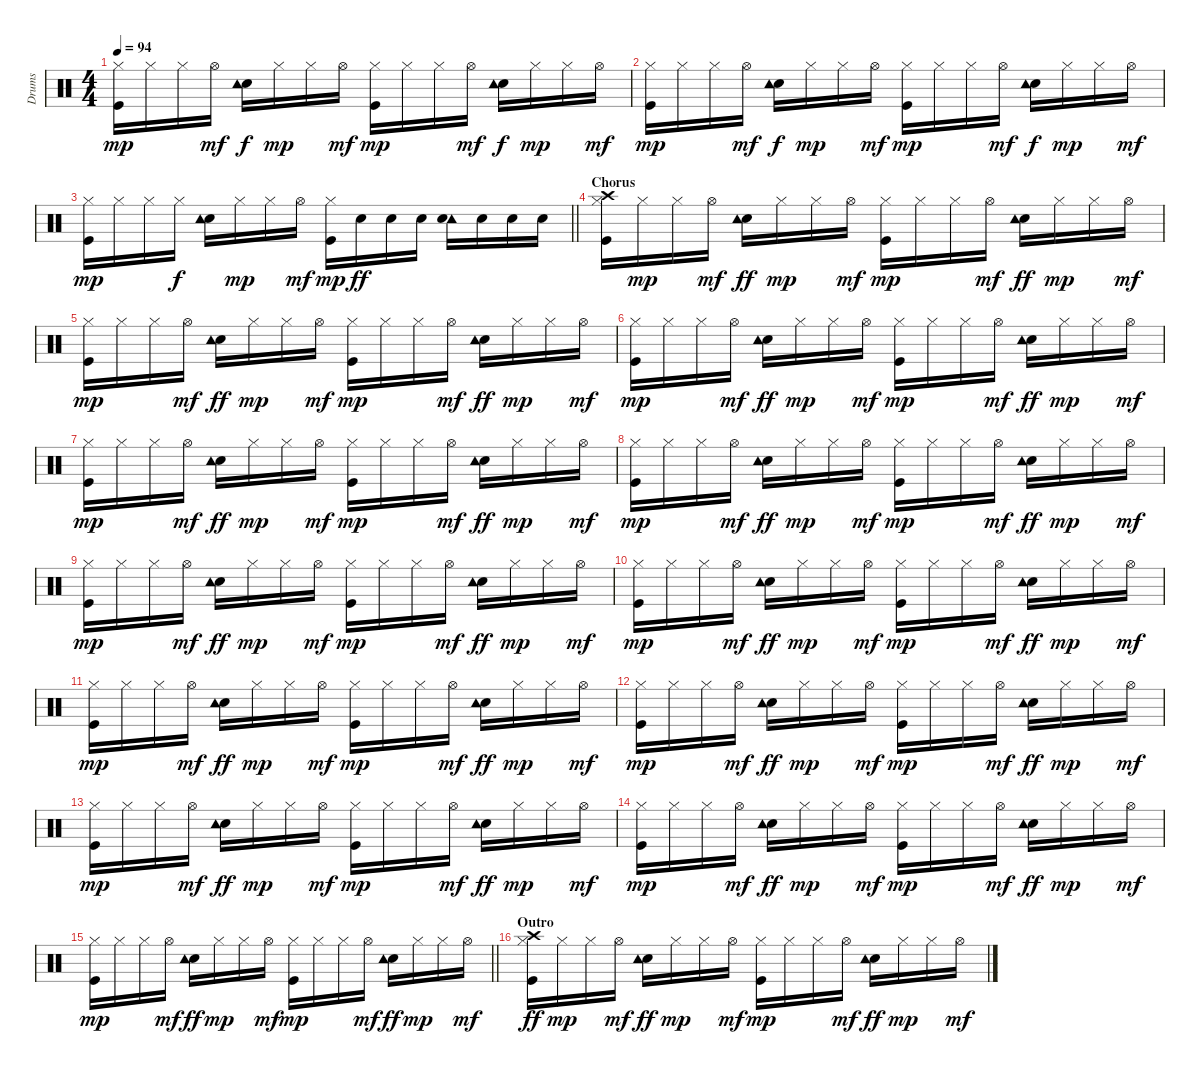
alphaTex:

\track ("Drums" "Drums") {instrument percussion}
\staff {score}
\articulation defaults
\ts (4 4)
\tempo 94
\clef neutral
\ks c
("Hi-Hat (closed)" "Kick (hit)").16{dy mp} "Hi-Hat (closed)".16 "Hi-Hat (closed)".16 "Hi-Hat (open)".16{dy mf} ("Snare (hit) 2" "Tambourine (hit)").16{dy f} "Hi-Hat (closed)".16{dy mp} "Hi-Hat (closed)".16 "Hi-Hat (open)".16{dy mf} ("Hi-Hat (closed)" "Kick (hit)").16{dy mp} "Hi-Hat (closed)".16 "Hi-Hat (closed)".16 "Hi-Hat (open)".16{dy mf} ("Snare (hit) 2" "Tambourine (hit)").16{dy f} "Hi-Hat (closed)".16{dy mp} "Hi-Hat (closed)".16 "Hi-Hat (open)".16{dy mf} |
("Hi-Hat (closed)" "Kick (hit)").16{dy mp} "Hi-Hat (closed)".16 "Hi-Hat (closed)".16 "Hi-Hat (open)".16{dy mf} ("Snare (hit) 2" "Tambourine (hit)").16{dy f} "Hi-Hat (closed)".16{dy mp} "Hi-Hat (closed)".16 "Hi-Hat (open)".16{dy mf} ("Hi-Hat (closed)" "Kick (hit)").16{dy mp} "Hi-Hat (closed)".16 "Hi-Hat (closed)".16 "Hi-Hat (open)".16{dy mf} ("Snare (hit) 2" "Tambourine (hit)").16{dy f} "Hi-Hat (closed)".16{dy mp} "Hi-Hat (closed)".16 "Hi-Hat (open)".16{dy mf} |
\barLineRight lightlight
("Hi-Hat (closed)" "Kick (hit)").16{dy mp} "Hi-Hat (closed)".16 "Hi-Hat (closed)".16 "Hi-Hat (closed)".16{dy f} ("Snare (hit) 2" "Tambourine (hit)").16 "Hi-Hat (closed)".16{dy mp} "Hi-Hat (closed)".16 "Hi-Hat (open)".16{dy mf} ("Hi-Hat (closed)" "Kick (hit)").16{dy mp} "Snare (hit) 2".16{dy ff} "Snare (hit) 2".16 "Snare (hit) 2".16 ("Tambourine (hit)" "Snare (hit) 2").16 "Snare (hit) 2".16 "Snare (hit) 2".16 "Snare (hit) 2".16 |
\section ("" "Chorus")
("Hi-Hat (closed)" "Kick (hit)" "Crash high (hit)").16 "Hi-Hat (closed)".16{dy mp} "Hi-Hat (closed)".16 "Hi-Hat (open)".16{dy mf} ("Snare (hit) 2" "Tambourine (hit)").16{dy ff} "Hi-Hat (closed)".16{dy mp} "Hi-Hat (closed)".16 "Hi-Hat (open)".16{dy mf} ("Hi-Hat (closed)" "Kick (hit)").16{dy mp} "Hi-Hat (closed)".16 "Hi-Hat (closed)".16 "Hi-Hat (open)".16{dy mf} ("Snare (hit) 2" "Tambourine (hit)").16{dy ff} "Hi-Hat (closed)".16{dy mp} "Hi-Hat (closed)".16 "Hi-Hat (open)".16{dy mf} |
("Hi-Hat (closed)" "Kick (hit)").16{dy mp} "Hi-Hat (closed)".16 "Hi-Hat (closed)".16 "Hi-Hat (open)".16{dy mf} ("Snare (hit) 2" "Tambourine (hit)").16{dy ff} "Hi-Hat (closed)".16{dy mp} "Hi-Hat (closed)".16 "Hi-Hat (open)".16{dy mf} ("Hi-Hat (closed)" "Kick (hit)").16{dy mp} "Hi-Hat (closed)".16 "Hi-Hat (closed)".16 "Hi-Hat (open)".16{dy mf} ("Snare (hit) 2" "Tambourine (hit)").16{dy ff} "Hi-Hat (closed)".16{dy mp} "Hi-Hat (closed)".16 "Hi-Hat (open)".16{dy mf} |
("Hi-Hat (closed)" "Kick (hit)").16{dy mp} "Hi-Hat (closed)".16 "Hi-Hat (closed)".16 "Hi-Hat (open)".16{dy mf} ("Snare (hit) 2" "Tambourine (hit)").16{dy ff} "Hi-Hat (closed)".16{dy mp} "Hi-Hat (closed)".16 "Hi-Hat (open)".16{dy mf} ("Hi-Hat (closed)" "Kick (hit)").16{dy mp} "Hi-Hat (closed)".16 "Hi-Hat (closed)".16 "Hi-Hat (open)".16{dy mf} ("Snare (hit) 2" "Tambourine (hit)").16{dy ff} "Hi-Hat (closed)".16{dy mp} "Hi-Hat (closed)".16 "Hi-Hat (open)".16{dy mf} |
("Hi-Hat (closed)" "Kick (hit)").16{dy mp} "Hi-Hat (closed)".16 "Hi-Hat (closed)".16 "Hi-Hat (open)".16{dy mf} ("Snare (hit) 2" "Tambourine (hit)").16{dy ff} "Hi-Hat (closed)".16{dy mp} "Hi-Hat (closed)".16 "Hi-Hat (open)".16{dy mf} ("Hi-Hat (closed)" "Kick (hit)").16{dy mp} "Hi-Hat (closed)".16 "Hi-Hat (closed)".16 "Hi-Hat (open)".16{dy mf} ("Snare (hit) 2" "Tambourine (hit)").16{dy ff} "Hi-Hat (closed)".16{dy mp} "Hi-Hat (closed)".16 "Hi-Hat (open)".16{dy mf} |
("Hi-Hat (closed)" "Kick (hit)").16{dy mp} "Hi-Hat (closed)".16 "Hi-Hat (closed)".16 "Hi-Hat (open)".16{dy mf} ("Snare (hit) 2" "Tambourine (hit)").16{dy ff} "Hi-Hat (closed)".16{dy mp} "Hi-Hat (closed)".16 "Hi-Hat (open)".16{dy mf} ("Hi-Hat (closed)" "Kick (hit)").16{dy mp} "Hi-Hat (closed)".16 "Hi-Hat (closed)".16 "Hi-Hat (open)".16{dy mf} ("Snare (hit) 2" "Tambourine (hit)").16{dy ff} "Hi-Hat (closed)".16{dy mp} "Hi-Hat (closed)".16 "Hi-Hat (open)".16{dy mf} |
("Hi-Hat (closed)" "Kick (hit)").16{dy mp} "Hi-Hat (closed)".16 "Hi-Hat (closed)".16 "Hi-Hat (open)".16{dy mf} ("Snare (hit) 2" "Tambourine (hit)").16{dy ff} "Hi-Hat (closed)".16{dy mp} "Hi-Hat (closed)".16 "Hi-Hat (open)".16{dy mf} ("Hi-Hat (closed)" "Kick (hit)").16{dy mp} "Hi-Hat (closed)".16 "Hi-Hat (closed)".16 "Hi-Hat (open)".16{dy mf} ("Snare (hit) 2" "Tambourine (hit)").16{dy ff} "Hi-Hat (closed)".16{dy mp} "Hi-Hat (closed)".16 "Hi-Hat (open)".16{dy mf} |
("Hi-Hat (closed)" "Kick (hit)").16{dy mp} "Hi-Hat (closed)".16 "Hi-Hat (closed)".16 "Hi-Hat (open)".16{dy mf} ("Snare (hit) 2" "Tambourine (hit)").16{dy ff} "Hi-Hat (closed)".16{dy mp} "Hi-Hat (closed)".16 "Hi-Hat (open)".16{dy mf} ("Hi-Hat (closed)" "Kick (hit)").16{dy mp} "Hi-Hat (closed)".16 "Hi-Hat (closed)".16 "Hi-Hat (open)".16{dy mf} ("Snare (hit) 2" "Tambourine (hit)").16{dy ff} "Hi-Hat (closed)".16{dy mp} "Hi-Hat (closed)".16 "Hi-Hat (open)".16{dy mf} |
("Hi-Hat (closed)" "Kick (hit)").16{dy mp} "Hi-Hat (closed)".16 "Hi-Hat (closed)".16 "Hi-Hat (open)".16{dy mf} ("Snare (hit) 2" "Tambourine (hit)").16{dy ff} "Hi-Hat (closed)".16{dy mp} "Hi-Hat (closed)".16 "Hi-Hat (open)".16{dy mf} ("Hi-Hat (closed)" "Kick (hit)").16{dy mp} "Hi-Hat (closed)".16 "Hi-Hat (closed)".16 "Hi-Hat (open)".16{dy mf} ("Snare (hit) 2" "Tambourine (hit)").16{dy ff} "Hi-Hat (closed)".16{dy mp} "Hi-Hat (closed)".16 "Hi-Hat (open)".16{dy mf} |
("Hi-Hat (closed)" "Kick (hit)").16{dy mp} "Hi-Hat (closed)".16 "Hi-Hat (closed)".16 "Hi-Hat (open)".16{dy mf} ("Snare (hit) 2" "Tambourine (hit)").16{dy ff} "Hi-Hat (closed)".16{dy mp} "Hi-Hat (closed)".16 "Hi-Hat (open)".16{dy mf} ("Hi-Hat (closed)" "Kick (hit)").16{dy mp} "Hi-Hat (closed)".16 "Hi-Hat (closed)".16 "Hi-Hat (open)".16{dy mf} ("Snare (hit) 2" "Tambourine (hit)").16{dy ff} "Hi-Hat (closed)".16{dy mp} "Hi-Hat (closed)".16 "Hi-Hat (open)".16{dy mf} |
("Hi-Hat (closed)" "Kick (hit)").16{dy mp} "Hi-Hat (closed)".16 "Hi-Hat (closed)".16 "Hi-Hat (open)".16{dy mf} ("Snare (hit) 2" "Tambourine (hit)").16{dy ff} "Hi-Hat (closed)".16{dy mp} "Hi-Hat (closed)".16 "Hi-Hat (open)".16{dy mf} ("Hi-Hat (closed)" "Kick (hit)").16{dy mp} "Hi-Hat (closed)".16 "Hi-Hat (closed)".16 "Hi-Hat (open)".16{dy mf} ("Snare (hit) 2" "Tambourine (hit)").16{dy ff} "Hi-Hat (closed)".16{dy mp} "Hi-Hat (closed)".16 "Hi-Hat (open)".16{dy mf} |
("Hi-Hat (closed)" "Kick (hit)").16{dy mp} "Hi-Hat (closed)".16 "Hi-Hat (closed)".16 "Hi-Hat (open)".16{dy mf} ("Snare (hit) 2" "Tambourine (hit)").16{dy ff} "Hi-Hat (closed)".16{dy mp} "Hi-Hat (closed)".16 "Hi-Hat (open)".16{dy mf} ("Hi-Hat (closed)" "Kick (hit)").16{dy mp} "Hi-Hat (closed)".16 "Hi-Hat (closed)".16 "Hi-Hat (open)".16{dy mf} ("Snare (hit) 2" "Tambourine (hit)").16{dy ff} "Hi-Hat (closed)".16{dy mp} "Hi-Hat (closed)".16 "Hi-Hat (open)".16{dy mf} |
\barLineRight lightlight
("Hi-Hat (closed)" "Kick (hit)").16{dy mp} "Hi-Hat (closed)".16 "Hi-Hat (closed)".16 "Hi-Hat (open)".16{dy mf} ("Snare (hit) 2" "Tambourine (hit)").16{dy ff} "Hi-Hat (closed)".16{dy mp} "Hi-Hat (closed)".16 "Hi-Hat (open)".16{dy mf} ("Hi-Hat (closed)" "Kick (hit)").16{dy mp} "Hi-Hat (closed)".16 "Hi-Hat (closed)".16 "Hi-Hat (open)".16{dy mf} ("Snare (hit) 2" "Tambourine (hit)").16{dy ff} "Hi-Hat (closed)".16{dy mp} "Hi-Hat (closed)".16 "Hi-Hat (open)".16{dy mf} |
\section ("" "Outro")
("Hi-Hat (closed)" "Kick (hit)" "Crash high (hit)").16{dy ff} "Hi-Hat (closed)".16{dy mp} "Hi-Hat (closed)".16 "Hi-Hat (open)".16{dy mf} ("Snare (hit) 2" "Tambourine (hit)").16{dy ff} "Hi-Hat (closed)".16{dy mp} "Hi-Hat (closed)".16 "Hi-Hat (open)".16{dy mf} ("Hi-Hat (closed)" "Kick (hit)").16{dy mp} "Hi-Hat (closed)".16 "Hi-Hat (closed)".16 "Hi-Hat (open)".16{dy mf} ("Snare (hit) 2" "Tambourine (hit)").16{dy ff} "Hi-Hat (closed)".16{dy mp} "Hi-Hat (closed)".16 "Hi-Hat (open)".16{dy mf}
